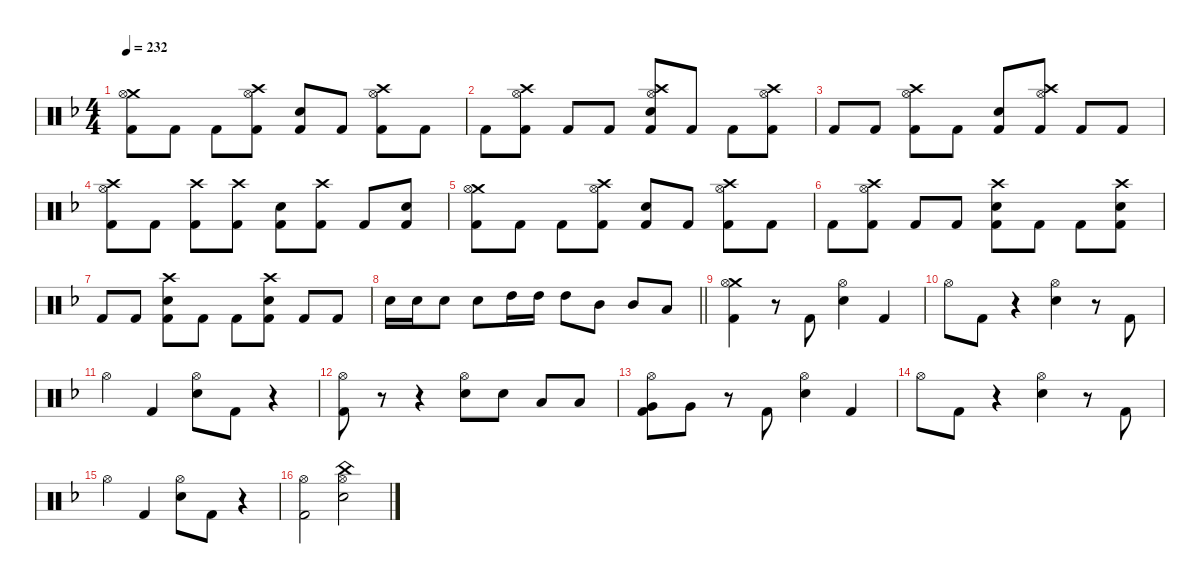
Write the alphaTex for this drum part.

\hideDynamics
\bracketExtendMode nobrackets
\singleTrackTrackNamePolicy hidden
\multiTrackTrackNamePolicy hidden
\firstSystemTrackNameMode fullname
\firstSystemTrackNameOrientation horizontal
\otherSystemsTrackNameOrientation horizontal
\track ("Drumkit" "Drums") {defaultSystemsLayout 4 instrument percussion}
\staff {score}
\articulation defaults
\ts (4 4)
\tempo 232
\clef neutral
\ks dminor
("Crash medium (hit)"{acc forcenatural} "Hi-Hat (open)"{acc forcenatural} "Kick (hit) 2"{acc forcenatural}).8{dy f beam Down} "Kick (hit) 2"{acc forcenatural}.8{beam Down} "Kick (hit) 2"{acc forcenatural}.8{beam Down} ("Crash high (hit)"{acc forcenatural} "Hi-Hat (open)"{acc forcenatural} "Kick (hit) 2"{acc forcenatural}).8{beam Down} ("Snare (hit) 2"{acc forcenatural} "Kick (hit) 2"{acc forcenatural}).8{beam Up} "Kick (hit) 2"{acc forcenatural}.8{beam Up} ("Crash high (hit)"{acc forcenatural} "Hi-Hat (open)"{acc forcenatural} "Kick (hit) 2"{acc forcenatural}).8{beam Down} "Kick (hit) 2"{acc forcenatural}.8{beam Down} |
"Kick (hit) 2"{acc forcenatural}.8{beam Down} ("Crash high (hit)"{acc forcenatural} "Hi-Hat (open)"{acc forcenatural} "Kick (hit) 2"{acc forcenatural}).8{beam Down} "Kick (hit) 2"{acc forcenatural}.8{beam Up} "Kick (hit) 2"{acc forcenatural}.8{beam Up} ("Crash high (hit)"{acc forcenatural} "Hi-Hat (open)"{acc forcenatural} "Snare (hit) 2"{acc forcenatural} "Kick (hit) 2"{acc forcenatural}).8{beam Up} "Kick (hit) 2"{acc forcenatural}.8{beam Up} "Kick (hit) 2"{acc forcenatural}.8{beam Down} ("Crash high (hit)"{acc forcenatural} "Hi-Hat (open)"{acc forcenatural} "Kick (hit) 2"{acc forcenatural}).8{beam Down} |
"Kick (hit) 2"{acc forcenatural}.8{beam Up} "Kick (hit) 2"{acc forcenatural}.8{beam Up} ("Crash high (hit)"{acc forcenatural} "Hi-Hat (open)"{acc forcenatural} "Kick (hit) 2"{acc forcenatural}).8{beam Down} "Kick (hit) 2"{acc forcenatural}.8{beam Down} ("Snare (hit) 2"{acc forcenatural} "Kick (hit) 2"{acc forcenatural}).8{beam Up} ("Crash high (hit)"{acc forcenatural} "Hi-Hat (open)"{acc forcenatural} "Kick (hit) 2"{acc forcenatural}).8{beam Up} "Kick (hit) 2"{acc forcenatural}.8{beam Up} "Kick (hit) 2"{acc forcenatural}.8{beam Up} |
("Crash high (hit)"{acc forcenatural} "Hi-Hat (open)"{acc forcenatural} "Kick (hit) 2"{acc forcenatural}).8{beam Down} "Kick (hit) 2"{acc forcenatural}.8{beam Down} ("Crash high (hit)"{acc forcenatural} "Kick (hit) 2"{acc forcenatural}).8{beam Down} ("Crash high (hit)"{acc forcenatural} "Kick (hit) 2"{acc forcenatural}).8{beam Down} ("Snare (hit) 2"{acc forcenatural} "Kick (hit) 2"{acc forcenatural}).8{beam Down} ("Crash high (hit)"{acc forcenatural} "Kick (hit) 2"{acc forcenatural}).8{beam Down} "Kick (hit) 2"{acc forcenatural}.8{beam Up} ("Snare (hit) 2"{acc forcenatural} "Kick (hit) 2"{acc forcenatural}).8{beam Up} |
("Crash medium (hit)"{acc forcenatural} "Hi-Hat (open)"{acc forcenatural} "Kick (hit) 2"{acc forcenatural}).8{beam Down} "Kick (hit) 2"{acc forcenatural}.8{beam Down} "Kick (hit) 2"{acc forcenatural}.8{beam Down} ("Crash high (hit)"{acc forcenatural} "Hi-Hat (open)"{acc forcenatural} "Kick (hit) 2"{acc forcenatural}).8{beam Down} ("Snare (hit) 2"{acc forcenatural} "Kick (hit) 2"{acc forcenatural}).8{beam Up} "Kick (hit) 2"{acc forcenatural}.8{beam Up} ("Crash high (hit)"{acc forcenatural} "Hi-Hat (open)"{acc forcenatural} "Kick (hit) 2"{acc forcenatural}).8{beam Down} "Kick (hit) 2"{acc forcenatural}.8{beam Down} |
"Kick (hit) 2"{acc forcenatural}.8{beam Down} ("Crash high (hit)"{acc forcenatural} "Hi-Hat (open)"{acc forcenatural} "Kick (hit) 2"{acc forcenatural}).8{beam Down} "Kick (hit) 2"{acc forcenatural}.8{beam Up} "Kick (hit) 2"{acc forcenatural}.8{beam Up} ("Crash high (hit)"{acc forcenatural} "Snare (hit) 2"{acc forcenatural} "Kick (hit) 2"{acc forcenatural}).8{beam Down} "Kick (hit) 2"{acc forcenatural}.8{beam Down} "Kick (hit) 2"{acc forcenatural}.8{beam Down} ("Crash high (hit)"{acc forcenatural} "Snare (hit) 2"{acc forcenatural} "Kick (hit) 2"{acc forcenatural}).8{beam Down} |
"Kick (hit) 2"{acc forcenatural}.8{beam Up} "Kick (hit) 2"{acc forcenatural}.8{beam Up} ("Crash high (hit)"{acc forcenatural} "Snare (hit) 2"{acc forcenatural} "Kick (hit) 2"{acc forcenatural}).8{beam Down} "Kick (hit) 2"{acc forcenatural}.8{beam Down} "Kick (hit) 2"{acc forcenatural}.8{beam Down} ("Crash high (hit)"{acc forcenatural} "Snare (hit) 2"{acc forcenatural} "Kick (hit) 2"{acc forcenatural}).8{beam Down} "Kick (hit) 2"{acc forcenatural}.8{beam Up} "Kick (hit) 2"{acc forcenatural}.8{beam Up} |
\barLineRight lightlight "Snare (hit) 2"{acc forcenatural}.16{beam Down} "Snare (hit) 2"{acc forcenatural}.16{beam Down} "Snare (hit) 2"{acc forcenatural}.8{beam Down} "Snare (hit) 2"{acc forcenatural}.8{beam Down} "High Tom (hit)"{acc forcenatural}.16{beam Down} "High Tom (hit)"{acc forcenatural}.16{beam Down} "High Tom (hit)"{acc forcenatural}.8{beam Down} "Mid Tom (hit)"{acc forcenatural}.8{beam Down} "Mid Tom (hit)"{acc forcenatural}.8{beam Up} "Low Tom (hit)"{acc forcenatural}.8{beam Up}
|
("Crash medium (hit)"{acc forcenatural} "Hi-Hat (open)"{acc forcenatural} "Kick (hit) 2"{acc forcenatural}).4{beam Down} r.8{beam Down} "Kick (hit) 2"{acc forcenatural}.8{beam Up} ("Hi-Hat (open)"{acc forcenatural} "Snare (hit) 2"{acc forcenatural}).4{beam Down} "Kick (hit) 2"{acc forcenatural}.4{beam Up} |
"Hi-Hat (open)"{acc forcenatural}.8{beam Down} "Kick (hit) 2"{acc forcenatural}.8{beam Down} r.4{beam Down} ("Hi-Hat (open)"{acc forcenatural} "Snare (hit) 2"{acc forcenatural}).4{beam Down} r.8{beam Down} "Kick (hit) 2"{acc forcenatural}.8{beam Up} |
"Hi-Hat (open)"{acc forcenatural}.4{beam Down} "Kick (hit) 2"{acc forcenatural}.4{beam Up} ("Hi-Hat (open)"{acc forcenatural} "Snare (hit) 2"{acc forcenatural}).8{beam Down} "Kick (hit) 2"{acc forcenatural}.8{beam Down} r.4{beam Down} |
("Hi-Hat (open)"{acc forcenatural} "Kick (hit) 2"{acc forcenatural}).8{beam Down} r.8{beam Down} r.4{beam Down} ("Hi-Hat (open)"{acc forcenatural} "Snare (hit) 2"{acc forcenatural}).8{beam Down} "Snare (hit) 2"{acc forcenatural}.8{dy mf beam Down} "Low Tom (hit)"{acc forcenatural}.8{beam Up} "Low Tom (hit)"{acc forcenatural}.8{beam Up} |
("Hi-Hat (open)"{acc forcenatural} "Very Low Tom (hit)"{acc forcenatural} "Kick (hit) 2"{acc forcenatural}).8{dy f beam Down} "Very Low Tom (hit)"{acc forcenatural}.8{dy mf beam Down} r.8{beam Down} "Kick (hit) 2"{acc forcenatural}.8{dy f beam Up} ("Hi-Hat (open)"{acc forcenatural} "Snare (hit) 2"{acc forcenatural}).4{beam Down} "Kick (hit) 2"{acc forcenatural}.4{beam Up} |
"Hi-Hat (open)"{acc forcenatural}.8{beam Down} "Kick (hit) 2"{acc forcenatural}.8{beam Down} r.4{beam Down} ("Hi-Hat (open)"{acc forcenatural} "Snare (hit) 2"{acc forcenatural}).4{beam Down} r.8{beam Down} "Kick (hit) 2"{acc forcenatural}.8{beam Up} |
"Hi-Hat (open)"{acc forcenatural}.4{beam Down} "Kick (hit) 2"{acc forcenatural}.4{beam Up} ("Hi-Hat (open)"{acc forcenatural} "Snare (hit) 2"{acc forcenatural}).8{beam Down} "Kick (hit) 2"{acc forcenatural}.8{beam Down} r.4{beam Down} |
("Hi-Hat (open)"{acc forcenatural} "Kick (hit) 2"{acc forcenatural}).2{beam Down} ("China (hit)"{acc forcenatural} "Hi-Hat (open)"{acc forcenatural} "Snare (hit) 2"{acc forcenatural}).2{beam Down}
